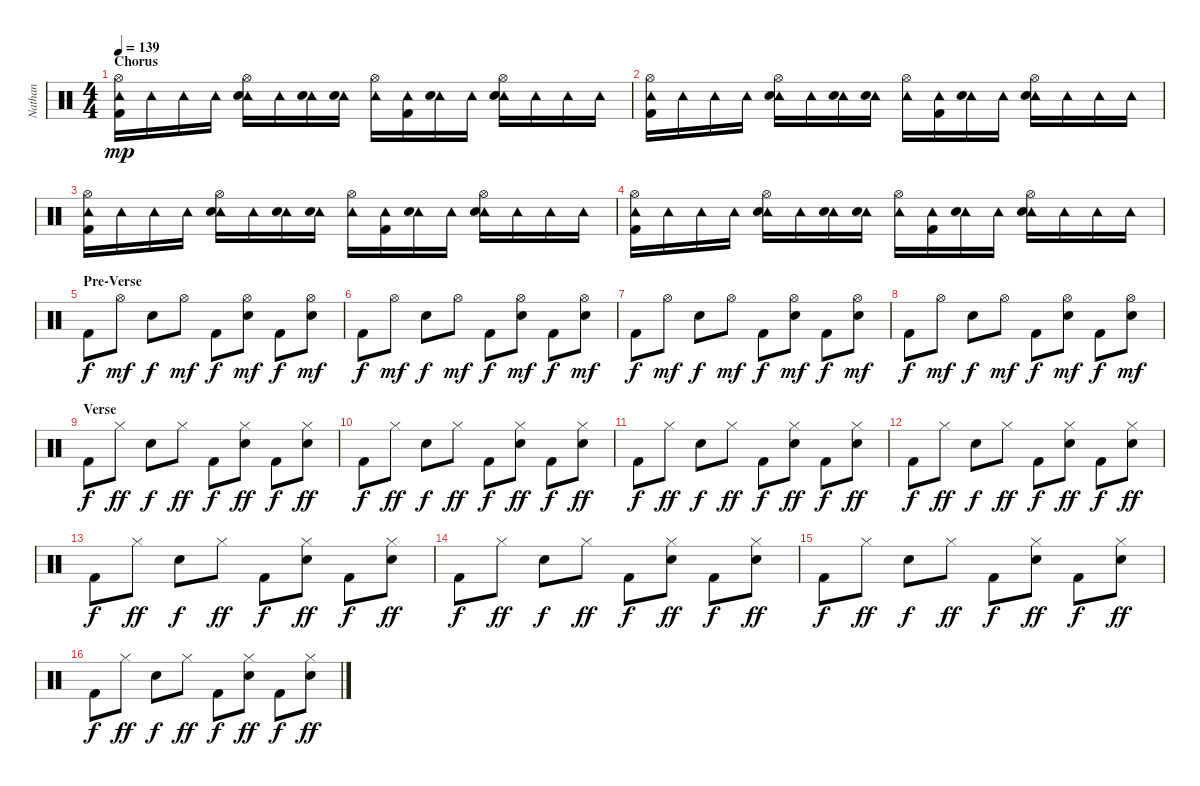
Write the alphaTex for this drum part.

\track ("Nathan" "Nathan") {instrument percussion}
\staff {score}
\articulation defaults
\ts (4 4)
\section ("" "Chorus")
\tempo 139
\clef neutral
\ks c
("Hi-Hat (open)" "Tambourine (hit)" "Kick (hit) 2").16{dy mp} "Tambourine (hit)".16 "Tambourine (hit)".16 "Tambourine (hit)".16 ("Hi-Hat (open)" "Tambourine (hit)" "Electric Snare (hit)").16 "Tambourine (hit)".16 ("Tambourine (hit)" "Electric Snare (hit)").16 ("Tambourine (hit)" "Electric Snare (hit)").16 ("Hi-Hat (open)" "Tambourine (hit)").16 ("Tambourine (hit)" "Kick (hit) 2").16 ("Tambourine (hit)" "Electric Snare (hit)").16 "Tambourine (hit)".16 ("Hi-Hat (open)" "Tambourine (hit)" "Electric Snare (hit)").16 "Tambourine (hit)".16 "Tambourine (hit)".16 "Tambourine (hit)".16 |
("Hi-Hat (open)" "Tambourine (hit)" "Kick (hit) 2").16 "Tambourine (hit)".16 "Tambourine (hit)".16 "Tambourine (hit)".16 ("Hi-Hat (open)" "Tambourine (hit)" "Electric Snare (hit)").16 "Tambourine (hit)".16 ("Tambourine (hit)" "Electric Snare (hit)").16 ("Tambourine (hit)" "Electric Snare (hit)").16 ("Hi-Hat (open)" "Tambourine (hit)").16 ("Tambourine (hit)" "Kick (hit) 2").16 ("Tambourine (hit)" "Electric Snare (hit)").16 "Tambourine (hit)".16 ("Hi-Hat (open)" "Tambourine (hit)" "Electric Snare (hit)").16 "Tambourine (hit)".16 "Tambourine (hit)".16 "Tambourine (hit)".16 |
("Hi-Hat (open)" "Tambourine (hit)" "Kick (hit) 2").16 "Tambourine (hit)".16 "Tambourine (hit)".16 "Tambourine (hit)".16 ("Hi-Hat (open)" "Tambourine (hit)" "Electric Snare (hit)").16 "Tambourine (hit)".16 ("Tambourine (hit)" "Electric Snare (hit)").16 ("Tambourine (hit)" "Electric Snare (hit)").16 ("Hi-Hat (open)" "Tambourine (hit)").16 ("Tambourine (hit)" "Kick (hit) 2").16 ("Tambourine (hit)" "Electric Snare (hit)").16 "Tambourine (hit)".16 ("Hi-Hat (open)" "Tambourine (hit)" "Electric Snare (hit)").16 "Tambourine (hit)".16 "Tambourine (hit)".16 "Tambourine (hit)".16 |
("Hi-Hat (open)" "Tambourine (hit)" "Kick (hit) 2").16 "Tambourine (hit)".16 "Tambourine (hit)".16 "Tambourine (hit)".16 ("Hi-Hat (open)" "Tambourine (hit)" "Electric Snare (hit)").16 "Tambourine (hit)".16 ("Tambourine (hit)" "Electric Snare (hit)").16 ("Tambourine (hit)" "Electric Snare (hit)").16 ("Hi-Hat (open)" "Tambourine (hit)").16 ("Tambourine (hit)" "Kick (hit) 2").16 ("Tambourine (hit)" "Electric Snare (hit)").16 "Tambourine (hit)".16 ("Hi-Hat (open)" "Tambourine (hit)" "Electric Snare (hit)").16 "Tambourine (hit)".16 "Tambourine (hit)".16 "Tambourine (hit)".16 |
\section ("" "Pre-Verse")
"Kick (hit) 2".8{dy f} "Hi-Hat (open)".8{dy mf} "Electric Snare (hit)".8{dy f} "Hi-Hat (open)".8{dy mf} "Kick (hit) 2".8{dy f} ("Hi-Hat (open)" "Electric Snare (hit)").8{dy mf} "Kick (hit) 2".8{dy f} ("Hi-Hat (open)" "Electric Snare (hit)").8{dy mf} |
"Kick (hit) 2".8{dy f} "Hi-Hat (open)".8{dy mf} "Electric Snare (hit)".8{dy f} "Hi-Hat (open)".8{dy mf} "Kick (hit) 2".8{dy f} ("Hi-Hat (open)" "Electric Snare (hit)").8{dy mf} "Kick (hit) 2".8{dy f} ("Hi-Hat (open)" "Electric Snare (hit)").8{dy mf} |
"Kick (hit) 2".8{dy f} "Hi-Hat (open)".8{dy mf} "Electric Snare (hit)".8{dy f} "Hi-Hat (open)".8{dy mf} "Kick (hit) 2".8{dy f} ("Hi-Hat (open)" "Electric Snare (hit)").8{dy mf} "Kick (hit) 2".8{dy f} ("Hi-Hat (open)" "Electric Snare (hit)").8{dy mf} |
"Kick (hit) 2".8{dy f} "Hi-Hat (open)".8{dy mf} "Electric Snare (hit)".8{dy f} "Hi-Hat (open)".8{dy mf} "Kick (hit) 2".8{dy f} ("Hi-Hat (open)" "Electric Snare (hit)").8{dy mf} "Kick (hit) 2".8{dy f} ("Hi-Hat (open)" "Electric Snare (hit)").8{dy mf} |
\section ("" "Verse")
"Kick (hit) 2".8{dy f} "Hi-Hat (closed)".8{dy ff} "Electric Snare (hit)".8{dy f} "Hi-Hat (closed)".8{dy ff} "Kick (hit) 2".8{dy f} ("Hi-Hat (closed)" "Electric Snare (hit)").8{dy ff} "Kick (hit) 2".8{dy f} ("Hi-Hat (closed)" "Electric Snare (hit)").8{dy ff} |
"Kick (hit) 2".8{dy f} "Hi-Hat (closed)".8{dy ff} "Electric Snare (hit)".8{dy f} "Hi-Hat (closed)".8{dy ff} "Kick (hit) 2".8{dy f} ("Hi-Hat (closed)" "Electric Snare (hit)").8{dy ff} "Kick (hit) 2".8{dy f} ("Hi-Hat (closed)" "Electric Snare (hit)").8{dy ff} |
"Kick (hit) 2".8{dy f} "Hi-Hat (closed)".8{dy ff} "Electric Snare (hit)".8{dy f} "Hi-Hat (closed)".8{dy ff} "Kick (hit) 2".8{dy f} ("Hi-Hat (closed)" "Electric Snare (hit)").8{dy ff} "Kick (hit) 2".8{dy f} ("Hi-Hat (closed)" "Electric Snare (hit)").8{dy ff} |
"Kick (hit) 2".8{dy f} "Hi-Hat (closed)".8{dy ff} "Electric Snare (hit)".8{dy f} "Hi-Hat (closed)".8{dy ff} "Kick (hit) 2".8{dy f} ("Hi-Hat (closed)" "Electric Snare (hit)").8{dy ff} "Kick (hit) 2".8{dy f} ("Hi-Hat (closed)" "Electric Snare (hit)").8{dy ff} |
"Kick (hit) 2".8{dy f} "Hi-Hat (closed)".8{dy ff} "Electric Snare (hit)".8{dy f} "Hi-Hat (closed)".8{dy ff} "Kick (hit) 2".8{dy f} ("Hi-Hat (closed)" "Electric Snare (hit)").8{dy ff} "Kick (hit) 2".8{dy f} ("Hi-Hat (closed)" "Electric Snare (hit)").8{dy ff} |
"Kick (hit) 2".8{dy f} "Hi-Hat (closed)".8{dy ff} "Electric Snare (hit)".8{dy f} "Hi-Hat (closed)".8{dy ff} "Kick (hit) 2".8{dy f} ("Hi-Hat (closed)" "Electric Snare (hit)").8{dy ff} "Kick (hit) 2".8{dy f} ("Hi-Hat (closed)" "Electric Snare (hit)").8{dy ff} |
"Kick (hit) 2".8{dy f} "Hi-Hat (closed)".8{dy ff} "Electric Snare (hit)".8{dy f} "Hi-Hat (closed)".8{dy ff} "Kick (hit) 2".8{dy f} ("Hi-Hat (closed)" "Electric Snare (hit)").8{dy ff} "Kick (hit) 2".8{dy f} ("Hi-Hat (closed)" "Electric Snare (hit)").8{dy ff} |
"Kick (hit) 2".8{dy f} "Hi-Hat (closed)".8{dy ff} "Electric Snare (hit)".8{dy f} "Hi-Hat (closed)".8{dy ff} "Kick (hit) 2".8{dy f} ("Hi-Hat (closed)" "Electric Snare (hit)").8{dy ff} "Kick (hit) 2".8{dy f} ("Hi-Hat (closed)" "Electric Snare (hit)").8{dy ff}
